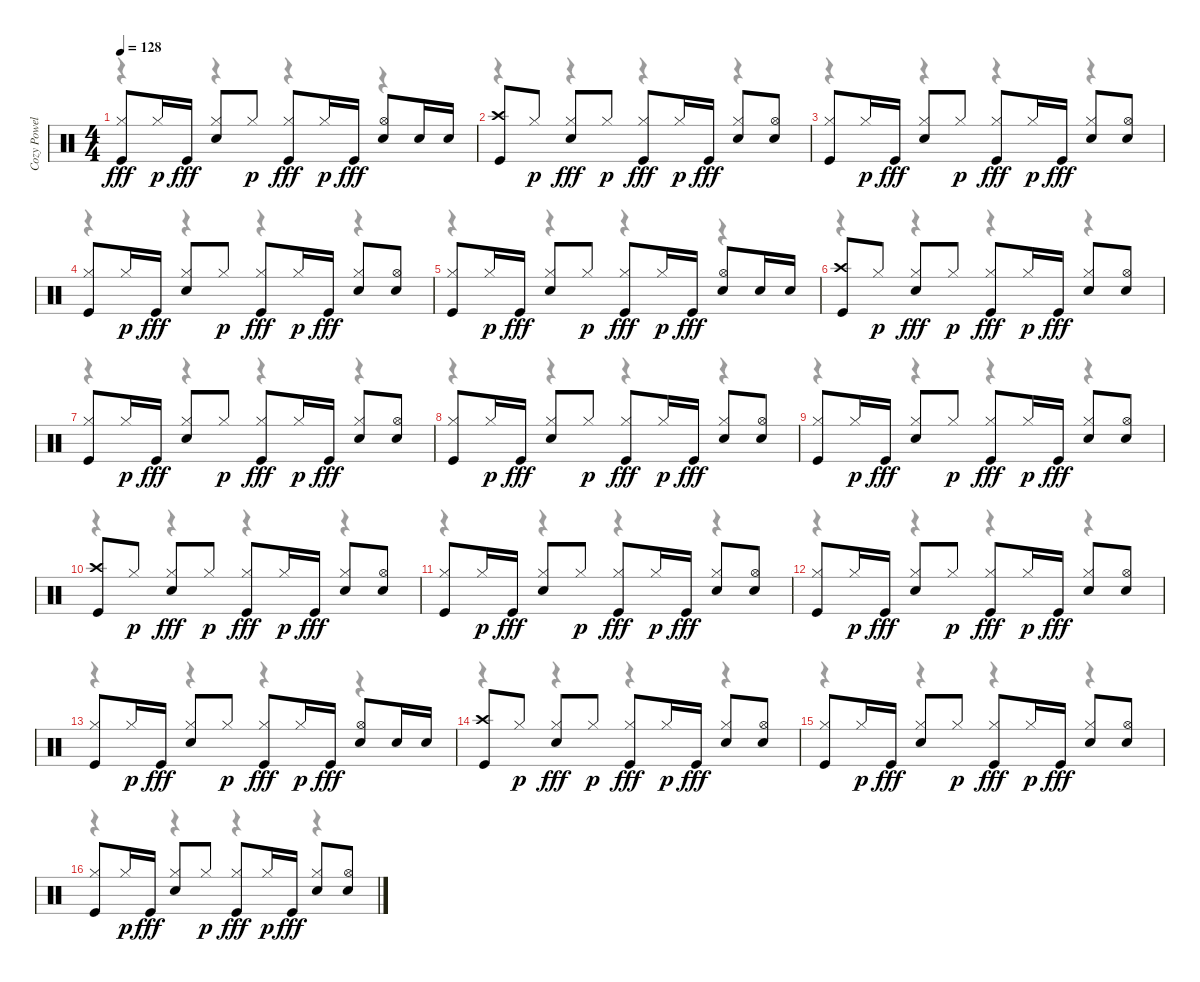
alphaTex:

\track ("Cozy Powell - Drums" "Cozy Powel") {instrument percussion}
\staff {score}
\articulation defaults
\voice
\ts (4 4)
\tempo 128
\clef neutral
\ks c
("Kick (hit)" "Hi-Hat (closed)").8{dy fff} "Hi-Hat (closed)".16{dy p} "Kick (hit)".16{dy fff} ("Snare (hit) 2" "Hi-Hat (closed)").8 "Hi-Hat (closed)".8{dy p} ("Kick (hit)" "Hi-Hat (closed)").8{dy fff} "Hi-Hat (closed)".16{dy p} "Kick (hit)".16{dy fff} ("Snare (hit) 2" "Hi-Hat (open)").8 "Snare (hit) 2".16 "Snare (hit) 2".16 |
("Kick (hit)" "Crash high (hit)").8 "Hi-Hat (closed)".8{dy p} ("Snare (hit) 2" "Hi-Hat (closed)").8{dy fff} "Hi-Hat (closed)".8{dy p} ("Kick (hit)" "Hi-Hat (closed)").8{dy fff} "Hi-Hat (closed)".16{dy p} "Kick (hit)".16{dy fff} ("Snare (hit) 2" "Hi-Hat (closed)").8 ("Snare (hit) 2" "Hi-Hat (open)").8 |
("Kick (hit)" "Hi-Hat (closed)").8 "Hi-Hat (closed)".16{dy p} "Kick (hit)".16{dy fff} ("Snare (hit) 2" "Hi-Hat (closed)").8 "Hi-Hat (closed)".8{dy p} ("Kick (hit)" "Hi-Hat (closed)").8{dy fff} "Hi-Hat (closed)".16{dy p} "Kick (hit)".16{dy fff} ("Snare (hit) 2" "Hi-Hat (closed)").8 ("Snare (hit) 2" "Hi-Hat (open)").8 |
("Kick (hit)" "Hi-Hat (closed)").8 "Hi-Hat (closed)".16{dy p} "Kick (hit)".16{dy fff} ("Snare (hit) 2" "Hi-Hat (closed)").8 "Hi-Hat (closed)".8{dy p} ("Kick (hit)" "Hi-Hat (closed)").8{dy fff} "Hi-Hat (closed)".16{dy p} "Kick (hit)".16{dy fff} ("Snare (hit) 2" "Hi-Hat (closed)").8 ("Snare (hit) 2" "Hi-Hat (open)").8 |
("Kick (hit)" "Hi-Hat (closed)").8 "Hi-Hat (closed)".16{dy p} "Kick (hit)".16{dy fff} ("Snare (hit) 2" "Hi-Hat (closed)").8 "Hi-Hat (closed)".8{dy p} ("Kick (hit)" "Hi-Hat (closed)").8{dy fff} "Hi-Hat (closed)".16{dy p} "Kick (hit)".16{dy fff} ("Snare (hit) 2" "Hi-Hat (open)").8 "Snare (hit) 2".16 "Snare (hit) 2".16 |
("Kick (hit)" "Crash high (hit)").8 "Hi-Hat (closed)".8{dy p} ("Snare (hit) 2" "Hi-Hat (closed)").8{dy fff} "Hi-Hat (closed)".8{dy p} ("Kick (hit)" "Hi-Hat (closed)").8{dy fff} "Hi-Hat (closed)".16{dy p} "Kick (hit)".16{dy fff} ("Snare (hit) 2" "Hi-Hat (closed)").8 ("Snare (hit) 2" "Hi-Hat (open)").8 |
("Kick (hit)" "Hi-Hat (closed)").8 "Hi-Hat (closed)".16{dy p} "Kick (hit)".16{dy fff} ("Snare (hit) 2" "Hi-Hat (closed)").8 "Hi-Hat (closed)".8{dy p} ("Kick (hit)" "Hi-Hat (closed)").8{dy fff} "Hi-Hat (closed)".16{dy p} "Kick (hit)".16{dy fff} ("Snare (hit) 2" "Hi-Hat (closed)").8 ("Snare (hit) 2" "Hi-Hat (open)").8 |
("Kick (hit)" "Hi-Hat (closed)").8 "Hi-Hat (closed)".16{dy p} "Kick (hit)".16{dy fff} ("Snare (hit) 2" "Hi-Hat (closed)").8 "Hi-Hat (closed)".8{dy p} ("Kick (hit)" "Hi-Hat (closed)").8{dy fff} "Hi-Hat (closed)".16{dy p} "Kick (hit)".16{dy fff} ("Snare (hit) 2" "Hi-Hat (closed)").8 ("Snare (hit) 2" "Hi-Hat (open)").8 |
("Kick (hit)" "Hi-Hat (closed)").8 "Hi-Hat (closed)".16{dy p} "Kick (hit)".16{dy fff} ("Snare (hit) 2" "Hi-Hat (closed)").8 "Hi-Hat (closed)".8{dy p} ("Kick (hit)" "Hi-Hat (closed)").8{dy fff} "Hi-Hat (closed)".16{dy p} "Kick (hit)".16{dy fff} ("Snare (hit) 2" "Hi-Hat (closed)").8 ("Snare (hit) 2" "Hi-Hat (open)").8 |
("Kick (hit)" "Crash high (hit)").8 "Hi-Hat (closed)".8{dy p} ("Snare (hit) 2" "Hi-Hat (closed)").8{dy fff} "Hi-Hat (closed)".8{dy p} ("Kick (hit)" "Hi-Hat (closed)").8{dy fff} "Hi-Hat (closed)".16{dy p} "Kick (hit)".16{dy fff} ("Snare (hit) 2" "Hi-Hat (closed)").8 ("Snare (hit) 2" "Hi-Hat (open)").8 |
("Kick (hit)" "Hi-Hat (closed)").8 "Hi-Hat (closed)".16{dy p} "Kick (hit)".16{dy fff} ("Snare (hit) 2" "Hi-Hat (closed)").8 "Hi-Hat (closed)".8{dy p} ("Kick (hit)" "Hi-Hat (closed)").8{dy fff} "Hi-Hat (closed)".16{dy p} "Kick (hit)".16{dy fff} ("Snare (hit) 2" "Hi-Hat (closed)").8 ("Snare (hit) 2" "Hi-Hat (open)").8 |
("Kick (hit)" "Hi-Hat (closed)").8 "Hi-Hat (closed)".16{dy p} "Kick (hit)".16{dy fff} ("Snare (hit) 2" "Hi-Hat (closed)").8 "Hi-Hat (closed)".8{dy p} ("Kick (hit)" "Hi-Hat (closed)").8{dy fff} "Hi-Hat (closed)".16{dy p} "Kick (hit)".16{dy fff} ("Snare (hit) 2" "Hi-Hat (closed)").8 ("Snare (hit) 2" "Hi-Hat (open)").8 |
("Kick (hit)" "Hi-Hat (closed)").8 "Hi-Hat (closed)".16{dy p} "Kick (hit)".16{dy fff} ("Snare (hit) 2" "Hi-Hat (closed)").8 "Hi-Hat (closed)".8{dy p} ("Kick (hit)" "Hi-Hat (closed)").8{dy fff} "Hi-Hat (closed)".16{dy p} "Kick (hit)".16{dy fff} ("Snare (hit) 2" "Hi-Hat (open)").8 "Snare (hit) 2".16 "Snare (hit) 2".16 |
("Kick (hit)" "Crash high (hit)").8 "Hi-Hat (closed)".8{dy p} ("Snare (hit) 2" "Hi-Hat (closed)").8{dy fff} "Hi-Hat (closed)".8{dy p} ("Kick (hit)" "Hi-Hat (closed)").8{dy fff} "Hi-Hat (closed)".16{dy p} "Kick (hit)".16{dy fff} ("Snare (hit) 2" "Hi-Hat (closed)").8 ("Snare (hit) 2" "Hi-Hat (open)").8 |
("Kick (hit)" "Hi-Hat (closed)").8 "Hi-Hat (closed)".16{dy p} "Kick (hit)".16{dy fff} ("Snare (hit) 2" "Hi-Hat (closed)").8 "Hi-Hat (closed)".8{dy p} ("Kick (hit)" "Hi-Hat (closed)").8{dy fff} "Hi-Hat (closed)".16{dy p} "Kick (hit)".16{dy fff} ("Snare (hit) 2" "Hi-Hat (closed)").8 ("Snare (hit) 2" "Hi-Hat (open)").8 |
("Kick (hit)" "Hi-Hat (closed)").8 "Hi-Hat (closed)".16{dy p} "Kick (hit)".16{dy fff} ("Snare (hit) 2" "Hi-Hat (closed)").8 "Hi-Hat (closed)".8{dy p} ("Kick (hit)" "Hi-Hat (closed)").8{dy fff} "Hi-Hat (closed)".16{dy p} "Kick (hit)".16{dy fff} ("Snare (hit) 2" "Hi-Hat (closed)").8 ("Snare (hit) 2" "Hi-Hat (open)").8
\voice
\clef neutral
\ottava regular
\simile none
\ks c
r.4{dy f} r.4 r.4 r.4 |
r.4 r.4 r.4 r.4 |
r.4 r.4 r.4 r.4 |
r.4 r.4 r.4 r.4 |
r.4 r.4 r.4 r.4 |
r.4 r.4 r.4 r.4 |
r.4 r.4 r.4 r.4 |
r.4 r.4 r.4 r.4 |
r.4 r.4 r.4 r.4 |
r.4 r.4 r.4 r.4 |
r.4 r.4 r.4 r.4 |
r.4 r.4 r.4 r.4 |
r.4 r.4 r.4 r.4 |
r.4 r.4 r.4 r.4 |
r.4 r.4 r.4 r.4 |
r.4 r.4 r.4 r.4
